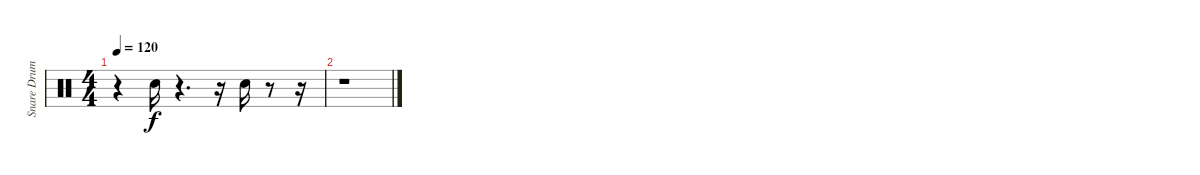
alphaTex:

\track ("Snare Drum" "Snare Drum") {instrument percussion}
\staff {score}
\articulation defaults
\ts (4 4)
\tempo 120
\clef neutral
\ks c
r.4{dy f} "Snare (hit) 2".16 r.4{d} r.16 "Snare (hit) 2".16 r.8 r.16 |
r.1
